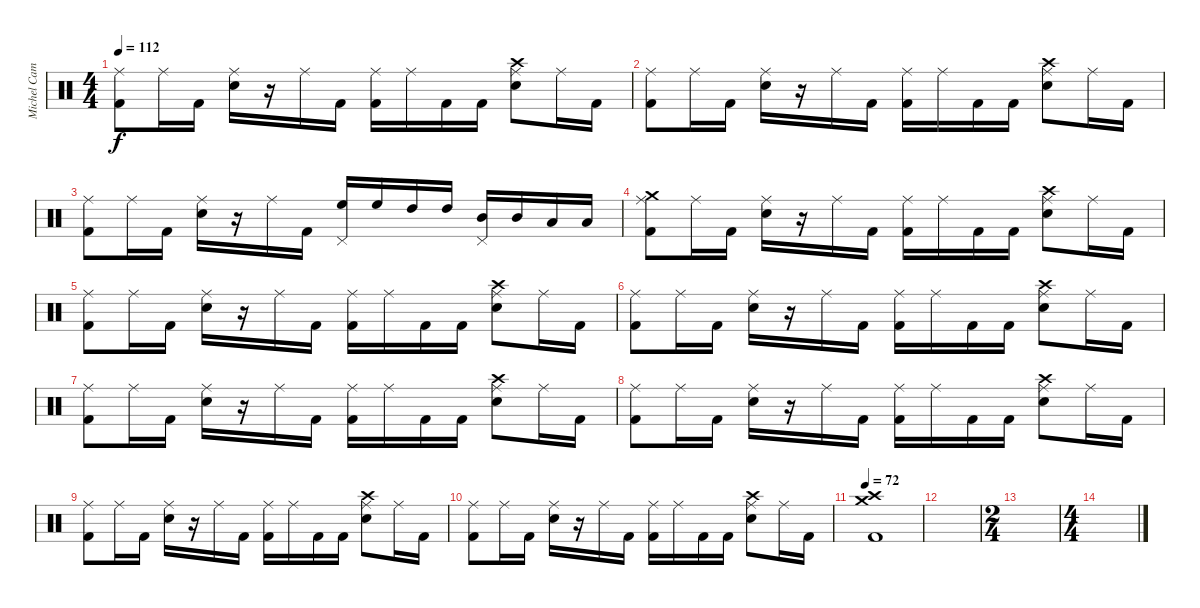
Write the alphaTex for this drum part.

\track ("Michel Camiade" "Michel Cam") {instrument percussion}
\staff {score}
\articulation defaults
\ts (4 4)
\tempo 112
\clef neutral
\ks c
("Ride (middle)" "Kick (hit) 2").8{dy f} "Ride (middle)".16 "Kick (hit) 2".16 ("Ride (middle)" "Snare (hit) 2").16 r.16 "Ride (middle)".16 "Kick (hit) 2".16 ("Ride (middle)" "Kick (hit) 2").16 "Ride (middle)".16 "Kick (hit) 2".16 "Kick (hit) 2".16 ("Crash high (hit)" "Ride (middle)" "Snare (hit) 2").8 "Ride (middle)".16 "Kick (hit) 2".16 |
("Ride (middle)" "Kick (hit) 2").8 "Ride (middle)".16 "Kick (hit) 2".16 ("Ride (middle)" "Snare (hit) 2").16 r.16 "Ride (middle)".16 "Kick (hit) 2".16 ("Ride (middle)" "Kick (hit) 2").16 "Ride (middle)".16 "Kick (hit) 2".16 "Kick (hit) 2".16 ("Crash high (hit)" "Ride (middle)" "Snare (hit) 2").8 "Ride (middle)".16 "Kick (hit) 2".16 |
("Ride (middle)" "Kick (hit) 2").8 "Ride (middle)".16 "Kick (hit) 2".16 ("Ride (middle)" "Snare (hit) 2").16 r.16 "Ride (middle)".16 "Kick (hit) 2".16 ("High Floor Tom (hit)" "Pedal Hi-Hat (hit)").16 "High Floor Tom (hit)".16 "High Tom (hit)".16 "High Tom (hit)".16 ("Mid Tom (hit)" "Pedal Hi-Hat (hit)").16 "Mid Tom (hit)".16 "Low Tom (hit)".16 "Low Tom (hit)".16 |
("Crash medium (hit)" "Ride (middle)" "Kick (hit) 2").8 "Ride (middle)".16 "Kick (hit) 2".16 ("Ride (middle)" "Snare (hit) 2").16 r.16 "Ride (middle)".16 "Kick (hit) 2".16 ("Ride (middle)" "Kick (hit) 2").16 "Ride (middle)".16 "Kick (hit) 2".16 "Kick (hit) 2".16 ("Crash high (hit)" "Ride (middle)" "Snare (hit) 2").8 "Ride (middle)".16 "Kick (hit) 2".16 |
("Ride (middle)" "Kick (hit) 2").8 "Ride (middle)".16 "Kick (hit) 2".16 ("Ride (middle)" "Snare (hit) 2").16 r.16 "Ride (middle)".16 "Kick (hit) 2".16 ("Ride (middle)" "Kick (hit) 2").16 "Ride (middle)".16 "Kick (hit) 2".16 "Kick (hit) 2".16 ("Crash high (hit)" "Ride (middle)" "Snare (hit) 2").8 "Ride (middle)".16 "Kick (hit) 2".16 |
("Ride (middle)" "Kick (hit) 2").8 "Ride (middle)".16 "Kick (hit) 2".16 ("Ride (middle)" "Snare (hit) 2").16 r.16 "Ride (middle)".16 "Kick (hit) 2".16 ("Ride (middle)" "Kick (hit) 2").16 "Ride (middle)".16 "Kick (hit) 2".16 "Kick (hit) 2".16 ("Crash high (hit)" "Ride (middle)" "Snare (hit) 2").8 "Ride (middle)".16 "Kick (hit) 2".16 |
("Ride (middle)" "Kick (hit) 2").8 "Ride (middle)".16 "Kick (hit) 2".16 ("Ride (middle)" "Snare (hit) 2").16 r.16 "Ride (middle)".16 "Kick (hit) 2".16 ("Ride (middle)" "Kick (hit) 2").16 "Ride (middle)".16 "Kick (hit) 2".16 "Kick (hit) 2".16 ("Crash high (hit)" "Ride (middle)" "Snare (hit) 2").8 "Ride (middle)".16 "Kick (hit) 2".16 |
("Ride (middle)" "Kick (hit) 2").8 "Ride (middle)".16 "Kick (hit) 2".16 ("Ride (middle)" "Snare (hit) 2").16 r.16 "Ride (middle)".16 "Kick (hit) 2".16 ("Ride (middle)" "Kick (hit) 2").16 "Ride (middle)".16 "Kick (hit) 2".16 "Kick (hit) 2".16 ("Crash high (hit)" "Ride (middle)" "Snare (hit) 2").8 "Ride (middle)".16 "Kick (hit) 2".16 |
("Ride (middle)" "Kick (hit) 2").8 "Ride (middle)".16 "Kick (hit) 2".16 ("Ride (middle)" "Snare (hit) 2").16 r.16 "Ride (middle)".16 "Kick (hit) 2".16 ("Ride (middle)" "Kick (hit) 2").16 "Ride (middle)".16 "Kick (hit) 2".16 "Kick (hit) 2".16 ("Crash high (hit)" "Ride (middle)" "Snare (hit) 2").8 "Ride (middle)".16 "Kick (hit) 2".16 |
("Ride (middle)" "Kick (hit) 2").8 "Ride (middle)".16 "Kick (hit) 2".16 ("Ride (middle)" "Snare (hit) 2").16 r.16 "Ride (middle)".16 "Kick (hit) 2".16 ("Ride (middle)" "Kick (hit) 2").16 "Ride (middle)".16 "Kick (hit) 2".16 "Kick (hit) 2".16 ("Crash high (hit)" "Ride (middle)" "Snare (hit) 2").8 "Ride (middle)".16 "Kick (hit) 2".16 |
\tempo 72
("Crash medium (hit)" "Crash high (hit)" "Kick (hit) 2").1 |
|
\ts (2 4)
|
\ts (4 4)
